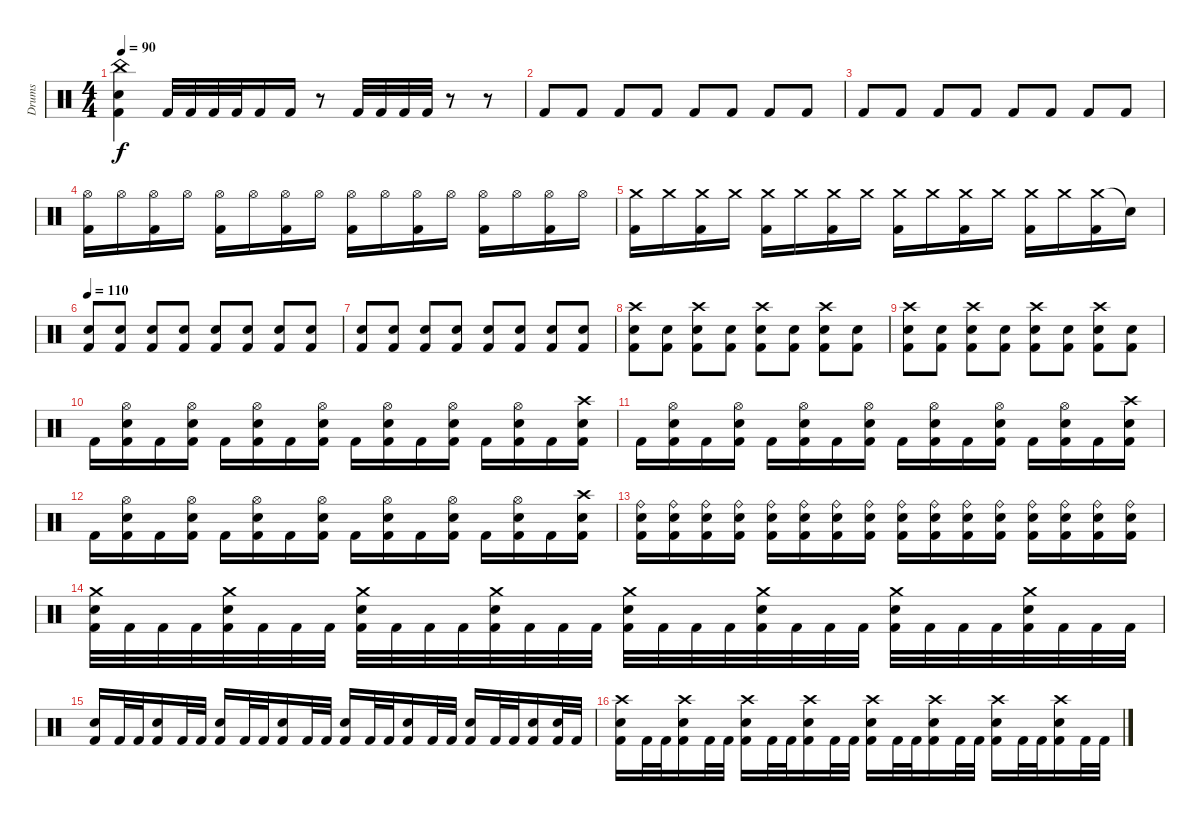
\track ("Drums" "Drums") {instrument percussion}
\staff {score}
\articulation defaults
\ts (4 4)
\tempo 90
\clef neutral
\ks c
("China (hit)" "Electric Snare (hit)" "Kick (hit) 2").4{dy f} "Kick (hit) 2".32 "Kick (hit) 2".32 "Kick (hit) 2".32 "Kick (hit) 2".32 "Kick (hit) 2".16 "Kick (hit) 2".16 r.8 "Kick (hit) 2".32 "Kick (hit) 2".32 "Kick (hit) 2".32 "Kick (hit) 2".32 r.8 r.8 |
"Kick (hit) 2".8 "Kick (hit) 2".8 "Kick (hit) 2".8 "Kick (hit) 2".8 "Kick (hit) 2".8 "Kick (hit) 2".8 "Kick (hit) 2".8 "Kick (hit) 2".8 |
"Kick (hit) 2".8 "Kick (hit) 2".8 "Kick (hit) 2".8 "Kick (hit) 2".8 "Kick (hit) 2".8 "Kick (hit) 2".8 "Kick (hit) 2".8 "Kick (hit) 2".8 |
("Hi-Hat (open)" "Kick (hit) 2").16 "Hi-Hat (open)".16 ("Hi-Hat (open)" "Kick (hit) 2").16 "Hi-Hat (open)".16 ("Hi-Hat (open)" "Kick (hit) 2").16 "Hi-Hat (open)".16 ("Hi-Hat (open)" "Kick (hit) 2").16 "Hi-Hat (open)".16 ("Hi-Hat (open)" "Kick (hit) 2").16{volume 11} "Hi-Hat (open)".16 ("Hi-Hat (open)" "Kick (hit) 2").16 "Hi-Hat (open)".16 ("Hi-Hat (open)" "Kick (hit) 2").16{volume 6} "Hi-Hat (open)".16 ("Hi-Hat (open)" "Kick (hit) 2").16 "Hi-Hat (open)".16 |
("Crash medium (hit)" "Kick (hit) 2").16{volume 8} "Crash medium (hit)".16 ("Crash medium (hit)" "Kick (hit) 2").16 "Crash medium (hit)".16 ("Crash medium (hit)" "Kick (hit) 2").16 "Crash medium (hit)".16{volume 9} ("Crash medium (hit)" "Kick (hit) 2").16 "Crash medium (hit)".16 ("Crash medium (hit)" "Kick (hit) 2").16 "Crash medium (hit)".16 ("Crash medium (hit)" "Kick (hit) 2").16{volume 12} "Crash medium (hit)".16 ("Crash medium (hit)" "Kick (hit) 2").16 "Crash medium (hit)".16 ("Crash medium (hit)" "Kick (hit) 2").16{volume 16} "Snare (hit)"{t}.16 |
\tempo 110
("Electric Snare (hit)" "Kick (hit) 2").8 ("Electric Snare (hit)" "Kick (hit) 2").8 ("Electric Snare (hit)" "Kick (hit) 2").8 ("Electric Snare (hit)" "Kick (hit) 2").8 ("Electric Snare (hit)" "Kick (hit) 2").8 ("Electric Snare (hit)" "Kick (hit) 2").8 ("Electric Snare (hit)" "Kick (hit) 2").8 ("Electric Snare (hit)" "Kick (hit) 2").8 |
("Electric Snare (hit)" "Kick (hit) 2").8 ("Electric Snare (hit)" "Kick (hit) 2").8 ("Electric Snare (hit)" "Kick (hit) 2").8 ("Electric Snare (hit)" "Kick (hit) 2").8 ("Electric Snare (hit)" "Kick (hit) 2").8 ("Electric Snare (hit)" "Kick (hit) 2").8 ("Electric Snare (hit)" "Kick (hit) 2").8 ("Electric Snare (hit)" "Kick (hit) 2").8 |
("Crash high (hit)" "Electric Snare (hit)" "Kick (hit) 2").8 ("Electric Snare (hit)" "Kick (hit) 2").8 ("Crash high (hit)" "Electric Snare (hit)" "Kick (hit) 2").8 ("Electric Snare (hit)" "Kick (hit) 2").8 ("Crash high (hit)" "Electric Snare (hit)" "Kick (hit) 2").8 ("Electric Snare (hit)" "Kick (hit) 2").8 ("Crash high (hit)" "Electric Snare (hit)" "Kick (hit) 2").8 ("Electric Snare (hit)" "Kick (hit) 2").8 |
("Crash high (hit)" "Electric Snare (hit)" "Kick (hit) 2").8 ("Electric Snare (hit)" "Kick (hit) 2").8 ("Crash high (hit)" "Electric Snare (hit)" "Kick (hit) 2").8 ("Electric Snare (hit)" "Kick (hit) 2").8 ("Crash high (hit)" "Electric Snare (hit)" "Kick (hit) 2").8 ("Electric Snare (hit)" "Kick (hit) 2").8 ("Crash high (hit)" "Electric Snare (hit)" "Kick (hit) 2").8 ("Electric Snare (hit)" "Kick (hit) 2").8 |
"Kick (hit) 2".16 ("Hi-Hat (open)" "Electric Snare (hit)" "Kick (hit) 2").16 "Kick (hit) 2".16 ("Hi-Hat (open)" "Electric Snare (hit)" "Kick (hit) 2").16 "Kick (hit) 2".16 ("Hi-Hat (open)" "Electric Snare (hit)" "Kick (hit) 2").16 "Kick (hit) 2".16 ("Hi-Hat (open)" "Electric Snare (hit)" "Kick (hit) 2").16 "Kick (hit) 2".16 ("Hi-Hat (open)" "Electric Snare (hit)" "Kick (hit) 2").16 "Kick (hit) 2".16 ("Hi-Hat (open)" "Electric Snare (hit)" "Kick (hit) 2").16 "Kick (hit) 2".16 ("Hi-Hat (open)" "Electric Snare (hit)" "Kick (hit) 2").16 "Kick (hit) 2".16 ("Crash high (hit)" "Electric Snare (hit)" "Kick (hit) 2").16 |
"Kick (hit) 2".16 ("Hi-Hat (open)" "Electric Snare (hit)" "Kick (hit) 2").16 "Kick (hit) 2".16 ("Hi-Hat (open)" "Electric Snare (hit)" "Kick (hit) 2").16 "Kick (hit) 2".16 ("Hi-Hat (open)" "Electric Snare (hit)" "Kick (hit) 2").16 "Kick (hit) 2".16 ("Hi-Hat (open)" "Electric Snare (hit)" "Kick (hit) 2").16 "Kick (hit) 2".16 ("Hi-Hat (open)" "Electric Snare (hit)" "Kick (hit) 2").16 "Kick (hit) 2".16 ("Hi-Hat (open)" "Electric Snare (hit)" "Kick (hit) 2").16 "Kick (hit) 2".16 ("Hi-Hat (open)" "Electric Snare (hit)" "Kick (hit) 2").16 "Kick (hit) 2".16 ("Crash high (hit)" "Electric Snare (hit)" "Kick (hit) 2").16 |
"Kick (hit) 2".16 ("Hi-Hat (open)" "Electric Snare (hit)" "Kick (hit) 2").16 "Kick (hit) 2".16 ("Hi-Hat (open)" "Electric Snare (hit)" "Kick (hit) 2").16 "Kick (hit) 2".16 ("Hi-Hat (open)" "Electric Snare (hit)" "Kick (hit) 2").16 "Kick (hit) 2".16 ("Hi-Hat (open)" "Electric Snare (hit)" "Kick (hit) 2").16 "Kick (hit) 2".16 ("Hi-Hat (open)" "Electric Snare (hit)" "Kick (hit) 2").16 "Kick (hit) 2".16 ("Hi-Hat (open)" "Electric Snare (hit)" "Kick (hit) 2").16 "Kick (hit) 2".16 ("Hi-Hat (open)" "Electric Snare (hit)" "Kick (hit) 2").16 "Kick (hit) 2".16 ("Crash high (hit)" "Electric Snare (hit)" "Kick (hit) 2").16 |
("Ride (bell)" "Electric Snare (hit)" "Kick (hit) 2").16 ("Ride (bell)" "Electric Snare (hit)" "Kick (hit) 2").16 ("Ride (bell)" "Electric Snare (hit)" "Kick (hit) 2").16 ("Ride (bell)" "Electric Snare (hit)" "Kick (hit) 2").16 ("Ride (bell)" "Electric Snare (hit)" "Kick (hit) 2").16 ("Ride (bell)" "Electric Snare (hit)" "Kick (hit) 2").16 ("Ride (bell)" "Electric Snare (hit)" "Kick (hit) 2").16 ("Ride (bell)" "Electric Snare (hit)" "Kick (hit) 2").16 ("Ride (bell)" "Electric Snare (hit)" "Kick (hit) 2").16 ("Ride (bell)" "Electric Snare (hit)" "Kick (hit) 2").16 ("Ride (bell)" "Electric Snare (hit)" "Kick (hit) 2").16 ("Ride (bell)" "Electric Snare (hit)" "Kick (hit) 2").16 ("Ride (bell)" "Electric Snare (hit)" "Kick (hit) 2").16 ("Ride (bell)" "Electric Snare (hit)" "Kick (hit) 2").16 ("Ride (bell)" "Electric Snare (hit)" "Kick (hit) 2").16 ("Ride (bell)" "Electric Snare (hit)" "Kick (hit) 2").16 |
("Crash medium (hit)" "Electric Snare (hit)" "Kick (hit) 2").32 "Kick (hit) 2".32 "Kick (hit) 2".32 "Kick (hit) 2".32 ("Crash medium (hit)" "Electric Snare (hit)" "Kick (hit) 2").32 "Kick (hit) 2".32 "Kick (hit) 2".32 "Kick (hit) 2".32 ("Crash medium (hit)" "Electric Snare (hit)" "Kick (hit) 2").32 "Kick (hit) 2".32 "Kick (hit) 2".32 "Kick (hit) 2".32 ("Crash medium (hit)" "Electric Snare (hit)" "Kick (hit) 2").32 "Kick (hit) 2".32 "Kick (hit) 2".32 "Kick (hit) 2".32 ("Crash medium (hit)" "Electric Snare (hit)" "Kick (hit) 2").32 "Kick (hit) 2".32 "Kick (hit) 2".32 "Kick (hit) 2".32 ("Crash medium (hit)" "Electric Snare (hit)" "Kick (hit) 2").32 "Kick (hit) 2".32 "Kick (hit) 2".32 "Kick (hit) 2".32 ("Crash medium (hit)" "Electric Snare (hit)" "Kick (hit) 2").32 "Kick (hit) 2".32 "Kick (hit) 2".32 "Kick (hit) 2".32 ("Crash medium (hit)" "Electric Snare (hit)" "Kick (hit) 2").32 "Kick (hit) 2".32 "Kick (hit) 2".32 "Kick (hit) 2".32 |
("Electric Snare (hit)" "Kick (hit) 2").16 "Kick (hit) 2".32 "Kick (hit) 2".32 ("Electric Snare (hit)" "Kick (hit) 2").16 "Kick (hit) 2".32 "Kick (hit) 2".32 ("Electric Snare (hit)" "Kick (hit) 2").16 "Kick (hit) 2".32 "Kick (hit) 2".32 ("Electric Snare (hit)" "Kick (hit) 2").16 "Kick (hit) 2".32 "Kick (hit) 2".32 ("Electric Snare (hit)" "Kick (hit) 2").16 "Kick (hit) 2".32 "Kick (hit) 2".32 ("Electric Snare (hit)" "Kick (hit) 2").16 "Kick (hit) 2".32 "Kick (hit) 2".32 ("Electric Snare (hit)" "Kick (hit) 2").16 "Kick (hit) 2".32 "Kick (hit) 2".32 ("Electric Snare (hit)" "Kick (hit) 2").16 ("Electric Snare (hit)" "Kick (hit) 2").32 "Kick (hit) 2".32 |
("Crash high (hit)" "Electric Snare (hit)" "Kick (hit) 2").16 "Kick (hit) 2".32 "Kick (hit) 2".32 ("Crash high (hit)" "Electric Snare (hit)" "Kick (hit) 2").16 "Kick (hit) 2".32 "Kick (hit) 2".32 ("Crash high (hit)" "Electric Snare (hit)" "Kick (hit) 2").16 "Kick (hit) 2".32 "Kick (hit) 2".32 ("Crash high (hit)" "Electric Snare (hit)" "Kick (hit) 2").16 "Kick (hit) 2".32 "Kick (hit) 2".32 ("Crash high (hit)" "Electric Snare (hit)" "Kick (hit) 2").16 "Kick (hit) 2".32 "Kick (hit) 2".32 ("Crash high (hit)" "Electric Snare (hit)" "Kick (hit) 2").16 "Kick (hit) 2".32 "Kick (hit) 2".32 ("Crash high (hit)" "Electric Snare (hit)" "Kick (hit) 2").16 "Kick (hit) 2".32 "Kick (hit) 2".32 ("Crash high (hit)" "Electric Snare (hit)" "Kick (hit) 2").16 "Kick (hit) 2".32 "Kick (hit) 2".32
